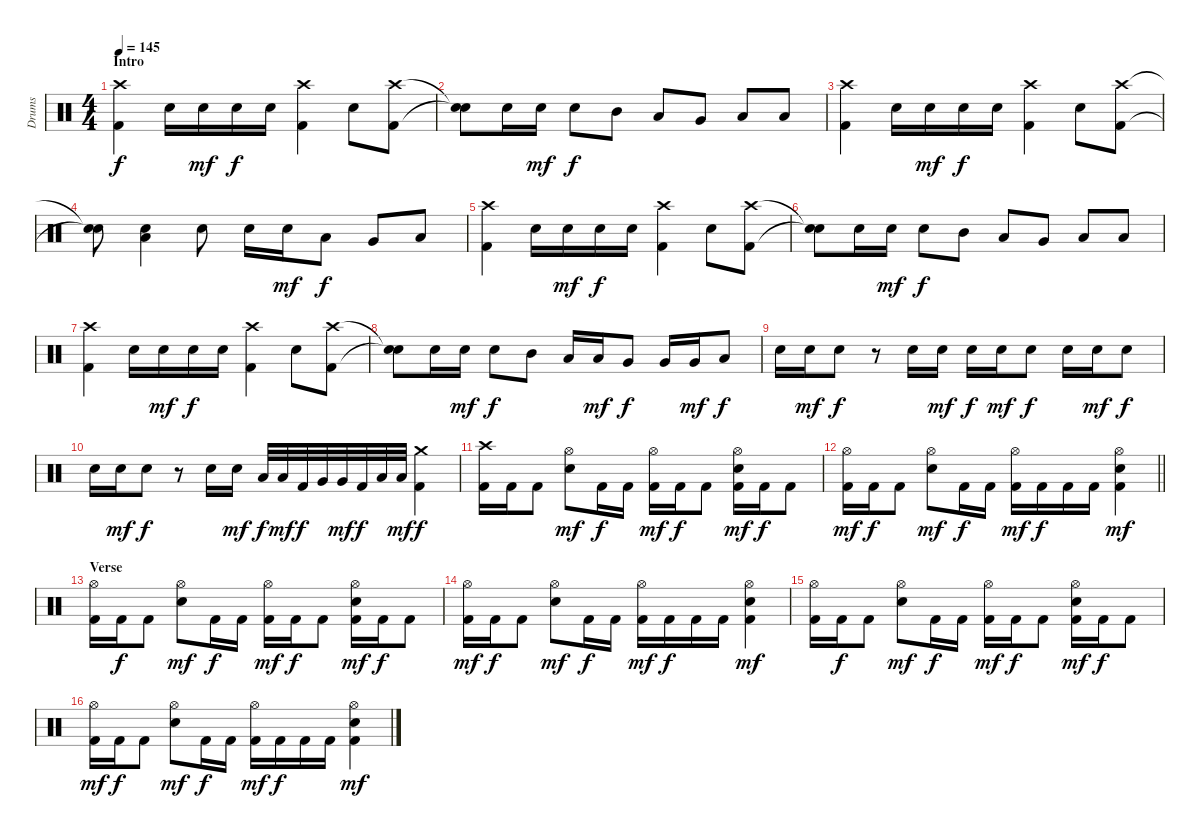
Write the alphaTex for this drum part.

\track ("Drums" "Drums") {instrument percussion}
\staff {score}
\articulation defaults
\ts (4 4)
\section ("" "Intro")
\tempo 145
\clef neutral
\ks c
("Kick (hit) 2" "Crash high (hit)").4{dy f} "Electric Snare (hit)".16 "Electric Snare (hit)".16{dy mf} "Electric Snare (hit)".16{dy f} "Electric Snare (hit)".16 ("Kick (hit) 2" "Crash high (hit)").4 "Electric Snare (hit)".8 ("Kick (hit) 2" "Crash high (hit)").8 |
("Snare (hit)"{t} "Snare (hit)"{t}).8 "Electric Snare (hit)".16 "Electric Snare (hit)".16{dy mf} "Electric Snare (hit)".8{dy f} "Mid Tom (hit)".8 "Low Tom (hit)".8 "Very Low Tom (hit)".8 "Low Floor Tom (hit)".8 "Low Floor Tom (hit)".8 |
("Kick (hit) 2" "Crash high (hit)").4 "Electric Snare (hit)".16 "Electric Snare (hit)".16{dy mf} "Electric Snare (hit)".16{dy f} "Electric Snare (hit)".16 ("Kick (hit) 2" "Crash high (hit)").4 "Electric Snare (hit)".8 ("Kick (hit) 2" "Crash high (hit)").8 |
("Snare (hit)"{t} "Snare (hit)"{t}).8 ("Low Tom (hit)" "Electric Snare (hit)").4 "Electric Snare (hit)".8 "Electric Snare (hit)".16 "Electric Snare (hit)".16{dy mf} "Low Tom (hit)".8{dy f} "Very Low Tom (hit)".8 "Low Floor Tom (hit)".8 |
("Kick (hit) 2" "Crash high (hit)").4 "Electric Snare (hit)".16 "Electric Snare (hit)".16{dy mf} "Electric Snare (hit)".16{dy f} "Electric Snare (hit)".16 ("Kick (hit) 2" "Crash high (hit)").4 "Electric Snare (hit)".8 ("Kick (hit) 2" "Crash high (hit)").8 |
("Snare (hit)"{t} "Snare (hit)"{t}).8 "Electric Snare (hit)".16 "Electric Snare (hit)".16{dy mf} "Electric Snare (hit)".8{dy f} "Mid Tom (hit)".8 "Low Tom (hit)".8 "Very Low Tom (hit)".8 "Low Floor Tom (hit)".8 "Low Floor Tom (hit)".8 |
("Kick (hit) 2" "Crash high (hit)").4 "Electric Snare (hit)".16 "Electric Snare (hit)".16{dy mf} "Electric Snare (hit)".16{dy f} "Electric Snare (hit)".16 ("Kick (hit) 2" "Crash high (hit)").4 "Electric Snare (hit)".8 ("Kick (hit) 2" "Crash high (hit)").8 |
("Snare (hit)"{t} "Snare (hit)"{t}).8 "Electric Snare (hit)".16 "Electric Snare (hit)".16{dy mf} "Electric Snare (hit)".8{dy f} "Mid Tom (hit)".8 "Low Tom (hit)".16 "Low Tom (hit)".16{dy mf} "Very Low Tom (hit)".8{dy f} "Very Low Tom (hit)".16 "Very Low Tom (hit)".16{dy mf} "Low Floor Tom (hit)".8{dy f} |
"Electric Snare (hit)".16 "Electric Snare (hit)".16{dy mf} "Electric Snare (hit)".8{dy f} r.8 "Electric Snare (hit)".16 "Electric Snare (hit)".16{dy mf} "Electric Snare (hit)".16{dy f} "Electric Snare (hit)".16{dy mf} "Electric Snare (hit)".8{dy f} "Electric Snare (hit)".16 "Electric Snare (hit)".16{dy mf} "Electric Snare (hit)".8{dy f} |
"Electric Snare (hit)".16 "Electric Snare (hit)".16{dy mf} "Electric Snare (hit)".8{dy f} r.8 "Electric Snare (hit)".16 "Electric Snare (hit)".16{dy mf} "Low Tom (hit)".32{dy f} "Low Tom (hit)".32{dy mf} "Kick (hit) 2".32{dy f} "Very Low Tom (hit)".32 "Very Low Tom (hit)".32{dy mf} "Kick (hit) 2".32{dy f} "Low Floor Tom (hit)".32 "Low Floor Tom (hit)".32{dy mf} ("Kick (hit) 2" "Crash medium (hit)").4{dy f} |
("Kick (hit) 2" "Crash high (hit)").16 "Kick (hit) 2".16 "Kick (hit) 2".8 ("Hi-Hat (open)" "Electric Snare (hit)").8{dy mf} "Kick (hit) 2".16{dy f} "Kick (hit) 2".16 ("Kick (hit) 2" "Hi-Hat (open)").16{dy mf} "Kick (hit) 2".16{dy f} "Kick (hit) 2".8 ("Kick (hit) 2" "Hi-Hat (open)" "Electric Snare (hit)").16{dy mf} "Kick (hit) 2".16{dy f} "Kick (hit) 2".8 |
\barLineRight lightlight
("Kick (hit) 2" "Hi-Hat (open)").16{dy mf} "Kick (hit) 2".16{dy f} "Kick (hit) 2".8 ("Hi-Hat (open)" "Electric Snare (hit)").8{dy mf} "Kick (hit) 2".16{dy f} "Kick (hit) 2".16 ("Kick (hit) 2" "Hi-Hat (open)").16{dy mf} "Kick (hit) 2".16{dy f} "Kick (hit) 2".16 "Kick (hit) 2".16 ("Kick (hit) 2" "Hi-Hat (open)" "Electric Snare (hit)").4{dy mf} |
\section ("" "Verse")
("Kick (hit) 2" "Hi-Hat (open)").16 "Kick (hit) 2".16{dy f} "Kick (hit) 2".8 ("Hi-Hat (open)" "Electric Snare (hit)").8{dy mf} "Kick (hit) 2".16{dy f} "Kick (hit) 2".16 ("Kick (hit) 2" "Hi-Hat (open)").16{dy mf} "Kick (hit) 2".16{dy f} "Kick (hit) 2".8 ("Kick (hit) 2" "Hi-Hat (open)" "Electric Snare (hit)").16{dy mf} "Kick (hit) 2".16{dy f} "Kick (hit) 2".8 |
("Kick (hit) 2" "Hi-Hat (open)").16{dy mf} "Kick (hit) 2".16{dy f} "Kick (hit) 2".8 ("Hi-Hat (open)" "Electric Snare (hit)").8{dy mf} "Kick (hit) 2".16{dy f} "Kick (hit) 2".16 ("Kick (hit) 2" "Hi-Hat (open)").16{dy mf} "Kick (hit) 2".16{dy f} "Kick (hit) 2".16 "Kick (hit) 2".16 ("Kick (hit) 2" "Hi-Hat (open)" "Electric Snare (hit)").4{dy mf} |
("Kick (hit) 2" "Hi-Hat (open)").16 "Kick (hit) 2".16{dy f} "Kick (hit) 2".8 ("Hi-Hat (open)" "Electric Snare (hit)").8{dy mf} "Kick (hit) 2".16{dy f} "Kick (hit) 2".16 ("Kick (hit) 2" "Hi-Hat (open)").16{dy mf} "Kick (hit) 2".16{dy f} "Kick (hit) 2".8 ("Kick (hit) 2" "Hi-Hat (open)" "Electric Snare (hit)").16{dy mf} "Kick (hit) 2".16{dy f} "Kick (hit) 2".8 |
("Kick (hit) 2" "Hi-Hat (open)").16{dy mf} "Kick (hit) 2".16{dy f} "Kick (hit) 2".8 ("Hi-Hat (open)" "Electric Snare (hit)").8{dy mf} "Kick (hit) 2".16{dy f} "Kick (hit) 2".16 ("Kick (hit) 2" "Hi-Hat (open)").16{dy mf} "Kick (hit) 2".16{dy f} "Kick (hit) 2".16 "Kick (hit) 2".16 ("Kick (hit) 2" "Hi-Hat (open)" "Electric Snare (hit)").4{dy mf}
